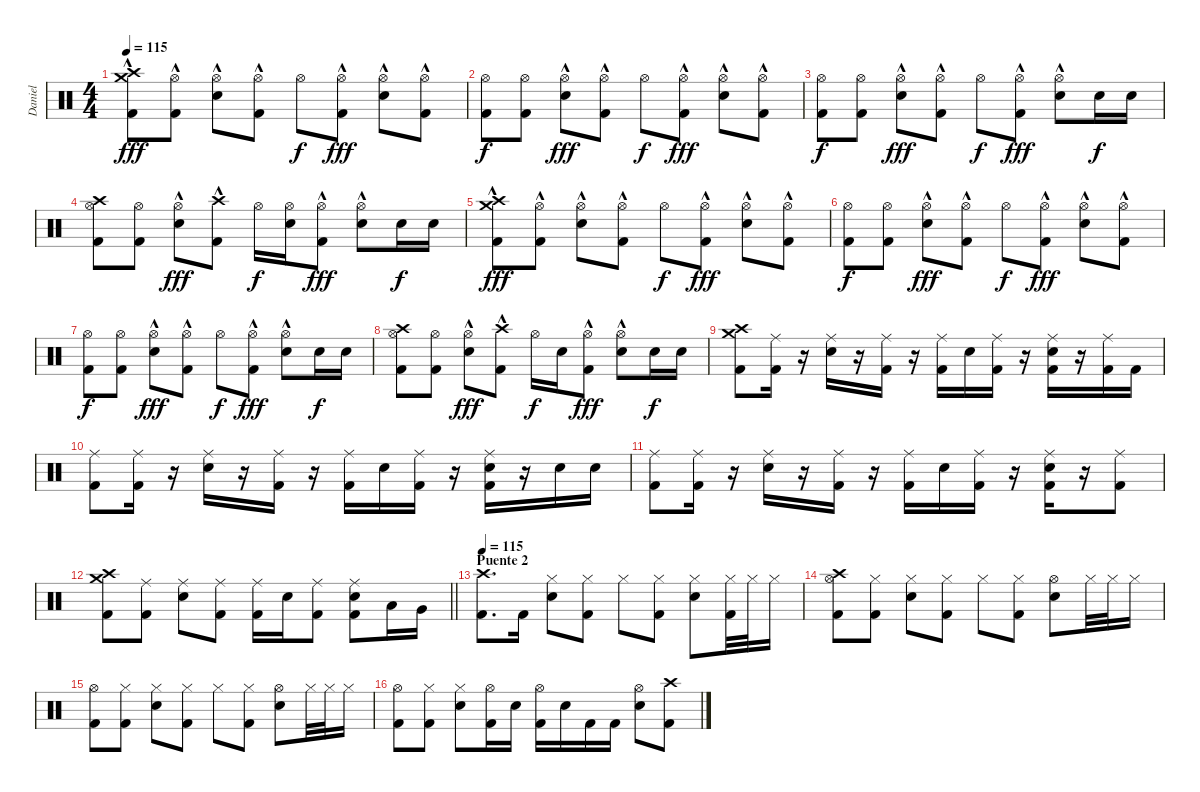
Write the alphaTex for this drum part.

\track ("Daniel" "Daniel") {instrument percussion}
\staff {score}
\articulation defaults
\ts (4 4)
\tempo 115
\clef neutral
\ks c
("Crash medium (hit)" "Crash high (hit)" "Kick (hit) 2"{hac}).8{dy fff} ("Hi-Hat (open)" "Kick (hit) 2"{hac}).8 ("Hi-Hat (open)"{hac} "Snare (hit) 2").8 ("Hi-Hat (open)" "Kick (hit) 2"{hac}).8 "Hi-Hat (open)".8{dy f} ("Hi-Hat (open)" "Kick (hit) 2"{hac}).8{dy fff} ("Hi-Hat (open)"{hac} "Snare (hit) 2").8 ("Hi-Hat (open)" "Kick (hit) 2"{hac}).8 |
("Hi-Hat (open)" "Kick (hit) 2").8{dy f} ("Hi-Hat (open)" "Kick (hit) 2").8 ("Hi-Hat (open)"{hac} "Snare (hit) 2").8{dy fff} ("Hi-Hat (open)" "Kick (hit) 2"{hac}).8 "Hi-Hat (open)".8{dy f} ("Hi-Hat (open)" "Kick (hit) 2"{hac}).8{dy fff} ("Hi-Hat (open)"{hac} "Snare (hit) 2").8 ("Hi-Hat (open)" "Kick (hit) 2"{hac}).8 |
("Hi-Hat (open)" "Kick (hit) 2").8{dy f} ("Hi-Hat (open)" "Kick (hit) 2").8 ("Hi-Hat (open)"{hac} "Snare (hit) 2").8{dy fff} ("Hi-Hat (open)" "Kick (hit) 2"{hac}).8 "Hi-Hat (open)".8{dy f} ("Hi-Hat (open)" "Kick (hit) 2"{hac}).8{dy fff} ("Hi-Hat (open)"{hac} "Snare (hit) 2").8 "Snare (hit) 2".16{dy f} "Snare (hit) 2".16 |
("Crash high (hit)" "Hi-Hat (open)" "Kick (hit) 2").8 ("Hi-Hat (open)" "Kick (hit) 2").8 ("Hi-Hat (open)"{hac} "Snare (hit) 2").8{dy fff} ("Crash high (hit)" "Kick (hit) 2"{hac}).8 "Hi-Hat (open)".16{dy f} ("Hi-Hat (open)" "Snare (hit) 2").16 ("Hi-Hat (open)" "Kick (hit) 2"{hac}).8{dy fff} ("Hi-Hat (open)"{hac} "Snare (hit) 2").8 "Snare (hit) 2".16{dy f} "Snare (hit) 2".16 |
("Crash medium (hit)" "Crash high (hit)" "Kick (hit) 2"{hac}).8{dy fff} ("Hi-Hat (open)" "Kick (hit) 2"{hac}).8 ("Hi-Hat (open)"{hac} "Snare (hit) 2").8 ("Hi-Hat (open)" "Kick (hit) 2"{hac}).8 "Hi-Hat (open)".8{dy f} ("Hi-Hat (open)" "Kick (hit) 2"{hac}).8{dy fff} ("Hi-Hat (open)"{hac} "Snare (hit) 2").8 ("Hi-Hat (open)" "Kick (hit) 2"{hac}).8 |
("Hi-Hat (open)" "Kick (hit) 2").8{dy f} ("Hi-Hat (open)" "Kick (hit) 2").8 ("Hi-Hat (open)"{hac} "Snare (hit) 2").8{dy fff} ("Hi-Hat (open)" "Kick (hit) 2"{hac}).8 "Hi-Hat (open)".8{dy f} ("Hi-Hat (open)" "Kick (hit) 2"{hac}).8{dy fff} ("Hi-Hat (open)"{hac} "Snare (hit) 2").8 ("Hi-Hat (open)" "Kick (hit) 2"{hac}).8 |
("Hi-Hat (open)" "Kick (hit) 2").8{dy f} ("Hi-Hat (open)" "Kick (hit) 2").8 ("Hi-Hat (open)"{hac} "Snare (hit) 2").8{dy fff} ("Hi-Hat (open)" "Kick (hit) 2"{hac}).8 "Hi-Hat (open)".8{dy f} ("Hi-Hat (open)" "Kick (hit) 2"{hac}).8{dy fff} ("Hi-Hat (open)"{hac} "Snare (hit) 2").8 "Snare (hit) 2".16{dy f} "Snare (hit) 2".16 |
("Crash high (hit)" "Hi-Hat (open)" "Kick (hit) 2").8 ("Hi-Hat (open)" "Kick (hit) 2").8 ("Hi-Hat (open)"{hac} "Snare (hit) 2").8{dy fff} ("Crash high (hit)" "Kick (hit) 2"{hac}).8 "Hi-Hat (open)".16{dy f} "Snare (hit) 2".16 ("Hi-Hat (open)" "Kick (hit) 2"{hac}).8{dy fff} ("Hi-Hat (open)"{hac} "Snare (hit) 2").8 "Snare (hit) 2".16{dy f} "Snare (hit) 2".16 |
("Crash high (hit)" "Crash medium (hit)" "Kick (hit) 2").8 ("Ride (middle)" "Kick (hit) 2").16 r.16 ("Ride (middle)" "Snare (hit) 2").16 r.16 ("Ride (middle)" "Kick (hit) 2").16 r.16 ("Ride (middle)" "Kick (hit) 2").16 "Snare (hit) 2".16 ("Ride (middle)" "Kick (hit) 2").16 r.16 ("Ride (middle)" "Snare (hit) 2" "Kick (hit) 2").16 r.16 ("Ride (middle)" "Kick (hit) 2").16 "Kick (hit) 2".16 |
("Ride (middle)" "Kick (hit) 2").8 ("Ride (middle)" "Kick (hit) 2").16 r.16 ("Ride (middle)" "Snare (hit) 2").16 r.16 ("Ride (middle)" "Kick (hit) 2").16 r.16 ("Ride (middle)" "Kick (hit) 2").16 "Snare (hit) 2".16 ("Ride (middle)" "Kick (hit) 2").16 r.16 ("Ride (middle)" "Snare (hit) 2" "Kick (hit) 2").16 r.16 "Snare (hit) 2".16 "Snare (hit) 2".16 |
("Ride (middle)" "Kick (hit) 2").8 ("Ride (middle)" "Kick (hit) 2").16 r.16 ("Ride (middle)" "Snare (hit) 2").16 r.16 ("Ride (middle)" "Kick (hit) 2").16 r.16 ("Ride (middle)" "Kick (hit) 2").16 "Snare (hit) 2".16 ("Ride (middle)" "Kick (hit) 2").16 r.16 ("Ride (middle)" "Snare (hit) 2" "Kick (hit) 2").16 r.16 ("Ride (middle)" "Kick (hit) 2").8 |
\barLineRight lightlight
("Crash high (hit)" "Crash medium (hit)" "Kick (hit) 2").8 ("Ride (middle)" "Kick (hit) 2").8 ("Ride (middle)" "Snare (hit) 2").8 ("Ride (middle)" "Kick (hit) 2").8 ("Ride (middle)" "Kick (hit) 2").16 "Snare (hit) 2".16 ("Ride (middle)" "Kick (hit) 2").8 ("Ride (middle)" "Snare (hit) 2" "Kick (hit) 2").8 "Low Tom (hit)".16 "Very Low Tom (hit)".16 |
\section ("" "Puente 2")
\tempo 115
("Crash high (hit)" "Kick (hit) 2").8{d} "Kick (hit) 2".16 ("Hi-Hat (closed)" "Snare (hit) 2").8 ("Hi-Hat (closed)" "Kick (hit) 2").8 "Hi-Hat (closed)".8 ("Hi-Hat (closed)" "Kick (hit) 2").8 ("Hi-Hat (closed)" "Snare (hit) 2").8 ("Hi-Hat (closed)" "Kick (hit) 2").32 "Hi-Hat (closed)".32 "Hi-Hat (closed)".16 |
("Crash high (hit)" "Hi-Hat (open)" "Kick (hit) 2").8 ("Hi-Hat (closed)" "Kick (hit) 2").8 ("Hi-Hat (closed)" "Snare (hit) 2").8 ("Hi-Hat (closed)" "Kick (hit) 2").8 "Hi-Hat (closed)".8 ("Hi-Hat (closed)" "Kick (hit) 2").8 ("Hi-Hat (open)" "Snare (hit) 2").8 "Hi-Hat (closed)".32 "Hi-Hat (closed)".32 "Hi-Hat (closed)".16 |
("Hi-Hat (open)" "Kick (hit) 2").8 ("Hi-Hat (closed)" "Kick (hit) 2").8 ("Hi-Hat (closed)" "Snare (hit) 2").8 ("Hi-Hat (closed)" "Kick (hit) 2").8 "Hi-Hat (closed)".8 ("Hi-Hat (closed)" "Kick (hit) 2").8 ("Hi-Hat (open)" "Snare (hit) 2").8 "Hi-Hat (closed)".32 "Hi-Hat (closed)".32 "Hi-Hat (closed)".16 |
("Hi-Hat (open)" "Kick (hit) 2").8 ("Hi-Hat (closed)" "Kick (hit) 2").8 ("Hi-Hat (closed)" "Snare (hit) 2").8 ("Hi-Hat (open)" "Kick (hit) 2").16 "Snare (hit) 2".16 ("Hi-Hat (open)" "Kick (hit) 2").16 "Snare (hit) 2".16 "Kick (hit) 2".16 "Kick (hit) 2".16 ("Hi-Hat (open)" "Snare (hit) 2").8 ("Crash high (hit)" "Kick (hit) 2").8
